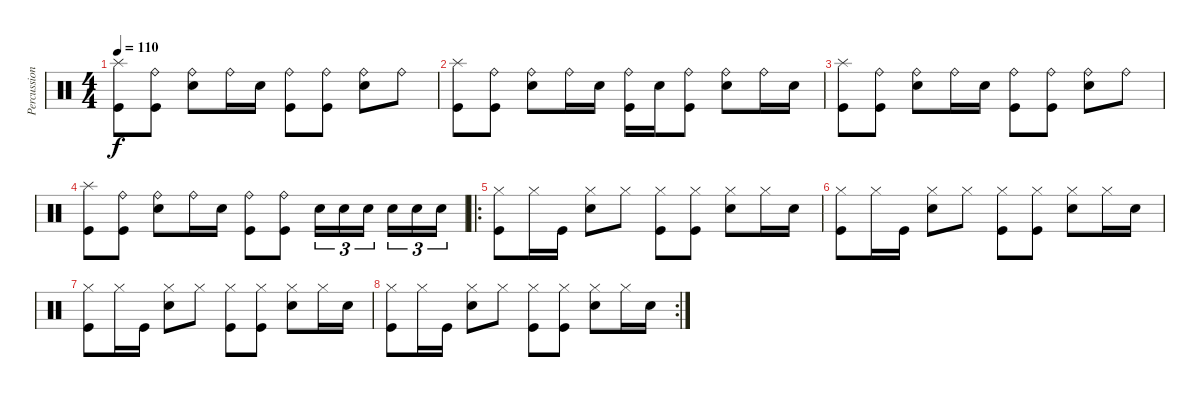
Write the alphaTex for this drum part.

\track ("Percussion" "Percussion") {instrument percussion}
\staff {score}
\articulation defaults
\ts (4 4)
\tempo 110
\clef neutral
\ks c
("Splash (hit)" "Kick (hit)").8{dy f} ("Ride (bell)" "Kick (hit)").8 ("Ride (bell)" "Snare (hit) 2").8 "Ride (bell)".16 "Snare (hit) 2".16 ("Ride (bell)" "Kick (hit)").8 ("Ride (bell)" "Kick (hit)").8 ("Ride (bell)" "Snare (hit) 2").8 "Ride (bell)".8 |
("Splash (hit)" "Kick (hit)").8 ("Ride (bell)" "Kick (hit)").8 ("Ride (bell)" "Snare (hit) 2").8 "Ride (bell)".16 "Snare (hit) 2".16 ("Ride (bell)" "Kick (hit)").16 "Snare (hit) 2".16 ("Ride (bell)" "Kick (hit)").8 ("Ride (bell)" "Snare (hit) 2").8 "Ride (bell)".16 "Snare (hit) 2".16 |
("Splash (hit)" "Kick (hit)").8 ("Ride (bell)" "Kick (hit)").8 ("Ride (bell)" "Snare (hit) 2").8 "Ride (bell)".16 "Snare (hit) 2".16 ("Ride (bell)" "Kick (hit)").8 ("Ride (bell)" "Kick (hit)").8 ("Ride (bell)" "Snare (hit) 2").8 "Ride (bell)".8 |
("Splash (hit)" "Kick (hit)").8 ("Ride (bell)" "Kick (hit)").8 ("Ride (bell)" "Snare (hit) 2").8 "Ride (bell)".16 "Snare (hit) 2".16 ("Ride (bell)" "Kick (hit)").8 ("Ride (bell)" "Kick (hit)").8 "Snare (hit) 2".16{tu (3 2)} "Snare (hit) 2".16{tu (3 2)} "Snare (hit) 2".16{tu (3 2)} "Snare (hit) 2".16{tu (3 2)} "Snare (hit) 2".16{tu (3 2)} "Snare (hit) 2".16{tu (3 2)} |
\ro
("Hi-Hat (closed)" "Kick (hit)").8 "Hi-Hat (closed)".16 "Kick (hit)".16 ("Hi-Hat (closed)" "Snare (hit) 2").8 "Hi-Hat (closed)".8 ("Hi-Hat (closed)" "Kick (hit)").8 ("Hi-Hat (closed)" "Kick (hit)").8 ("Hi-Hat (closed)" "Snare (hit) 2").8 "Hi-Hat (closed)".16 "Snare (hit) 2".16 |
("Hi-Hat (closed)" "Kick (hit)").8 "Hi-Hat (closed)".16 "Kick (hit)".16 ("Hi-Hat (closed)" "Snare (hit) 2").8 "Hi-Hat (closed)".8 ("Hi-Hat (closed)" "Kick (hit)").8 ("Hi-Hat (closed)" "Kick (hit)").8 ("Hi-Hat (closed)" "Snare (hit) 2").8 "Hi-Hat (closed)".16 "Snare (hit) 2".16 |
("Hi-Hat (closed)" "Kick (hit)").8 "Hi-Hat (closed)".16 "Kick (hit)".16 ("Hi-Hat (closed)" "Snare (hit) 2").8 "Hi-Hat (closed)".8 ("Hi-Hat (closed)" "Kick (hit)").8 ("Hi-Hat (closed)" "Kick (hit)").8 ("Hi-Hat (closed)" "Snare (hit) 2").8 "Hi-Hat (closed)".16 "Snare (hit) 2".16 |
\rc 2
("Hi-Hat (closed)" "Kick (hit)").8 "Hi-Hat (closed)".16 "Kick (hit)".16 ("Hi-Hat (closed)" "Snare (hit) 2").8 "Hi-Hat (closed)".8 ("Hi-Hat (closed)" "Kick (hit)").8 ("Hi-Hat (closed)" "Kick (hit)").8 ("Hi-Hat (closed)" "Snare (hit) 2").8 "Hi-Hat (closed)".16 "Snare (hit) 2".16
